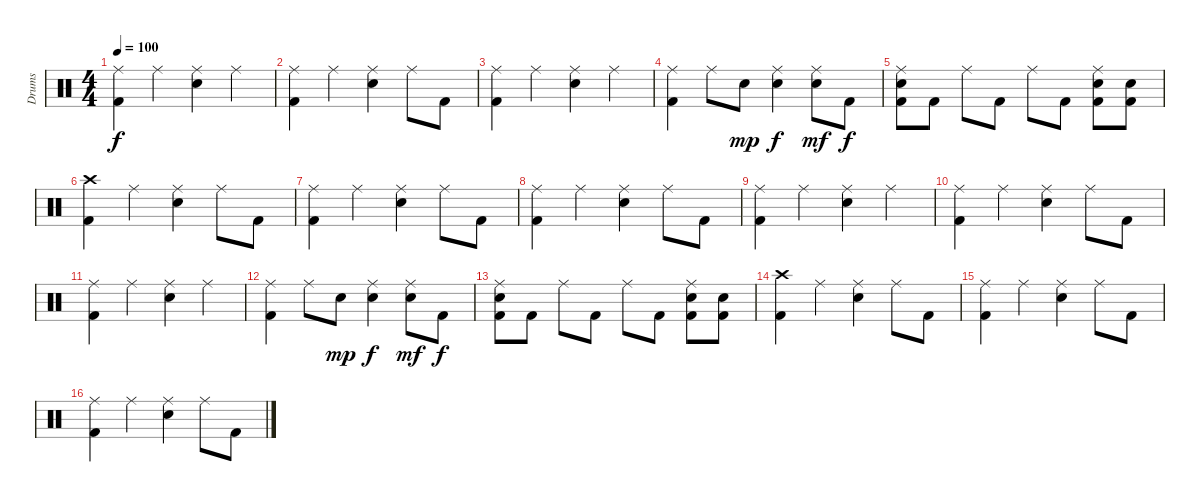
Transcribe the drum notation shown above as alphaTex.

\track ("Drums" "Drums") {instrument percussion}
\staff {score}
\articulation defaults
\ts (4 4)
\tempo 100
\clef neutral
\ks c
("Ride (middle)" "Kick (hit) 2").4{dy f} "Ride (middle)".4 ("Ride (middle)" "Electric Snare (hit)").4 "Ride (middle)".4 |
("Ride (middle)" "Kick (hit) 2").4 "Ride (middle)".4 ("Ride (middle)" "Electric Snare (hit)").4 "Ride (middle)".8 "Kick (hit) 2".8 |
("Ride (middle)" "Kick (hit) 2").4 "Ride (middle)".4 ("Ride (middle)" "Electric Snare (hit)").4 "Ride (middle)".4 |
("Ride (middle)" "Kick (hit) 2").4 "Ride (middle)".8 "Electric Snare (hit)".8{dy mp} ("Ride (middle)" "Electric Snare (hit)").4{dy f} ("Ride (middle)" "Electric Snare (hit)").8{dy mf} "Kick (hit) 2".8{dy f} |
("Ride (middle)" "Electric Snare (hit)" "Kick (hit) 2").8 "Kick (hit) 2".8 "Ride (middle)".8 "Kick (hit) 2".8 "Ride (middle)".8 "Kick (hit) 2".8 ("Ride (middle)" "Electric Snare (hit)" "Kick (hit) 2").8 ("Electric Snare (hit)" "Kick (hit) 2").8 |
("Crash high (hit)" "Kick (hit) 2").4 "Ride (middle)".4 ("Ride (middle)" "Electric Snare (hit)").4 "Ride (middle)".8 "Kick (hit) 2".8 |
("Ride (middle)" "Kick (hit) 2").4 "Ride (middle)".4 ("Ride (middle)" "Electric Snare (hit)").4 "Ride (middle)".8 "Kick (hit) 2".8 |
("Ride (middle)" "Kick (hit) 2").4 "Ride (middle)".4 ("Ride (middle)" "Electric Snare (hit)").4 "Ride (middle)".8 "Kick (hit) 2".8 |
("Ride (middle)" "Kick (hit) 2").4 "Ride (middle)".4 ("Ride (middle)" "Electric Snare (hit)").4 "Ride (middle)".4 |
("Ride (middle)" "Kick (hit) 2").4 "Ride (middle)".4 ("Ride (middle)" "Electric Snare (hit)").4 "Ride (middle)".8 "Kick (hit) 2".8 |
("Ride (middle)" "Kick (hit) 2").4 "Ride (middle)".4 ("Ride (middle)" "Electric Snare (hit)").4 "Ride (middle)".4 |
("Ride (middle)" "Kick (hit) 2").4 "Ride (middle)".8 "Electric Snare (hit)".8{dy mp} ("Ride (middle)" "Electric Snare (hit)").4{dy f} ("Ride (middle)" "Electric Snare (hit)").8{dy mf} "Kick (hit) 2".8{dy f} |
("Ride (middle)" "Electric Snare (hit)" "Kick (hit) 2").8 "Kick (hit) 2".8 "Ride (middle)".8 "Kick (hit) 2".8 "Ride (middle)".8 "Kick (hit) 2".8 ("Ride (middle)" "Electric Snare (hit)" "Kick (hit) 2").8 ("Electric Snare (hit)" "Kick (hit) 2").8 |
("Crash high (hit)" "Kick (hit) 2").4{volume 10} "Ride (middle)".4 ("Ride (middle)" "Electric Snare (hit)").4 "Ride (middle)".8 "Kick (hit) 2".8 |
("Ride (middle)" "Kick (hit) 2").4 "Ride (middle)".4 ("Ride (middle)" "Electric Snare (hit)").4 "Ride (middle)".8 "Kick (hit) 2".8 |
("Ride (middle)" "Kick (hit) 2").4{volume 8} "Ride (middle)".4 ("Ride (middle)" "Electric Snare (hit)").4 "Ride (middle)".8 "Kick (hit) 2".8
